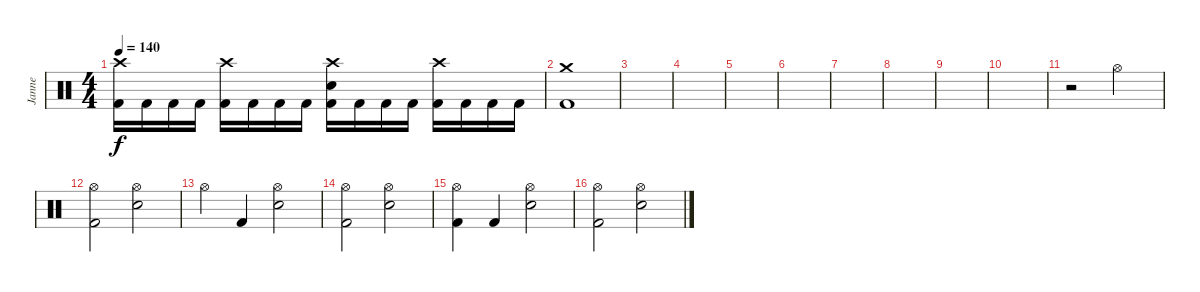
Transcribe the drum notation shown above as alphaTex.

\track ("Janne" "Janne") {instrument percussion}
\staff {score}
\articulation defaults
\ts (4 4)
\tempo 140
\clef neutral
\ks c
("Crash high (hit)" "Kick (hit) 2").16{dy f} "Kick (hit) 2".16 "Kick (hit) 2".16 "Kick (hit) 2".16 ("Crash high (hit)" "Kick (hit) 2").16 "Kick (hit) 2".16 "Kick (hit) 2".16 "Kick (hit) 2".16 ("Crash high (hit)" "Electric Snare (hit)" "Kick (hit) 2").16 "Kick (hit) 2".16 "Kick (hit) 2".16 "Kick (hit) 2".16 ("Crash high (hit)" "Kick (hit) 2").16 "Kick (hit) 2".16 "Kick (hit) 2".16 "Kick (hit) 2".16 |
("Crash medium (hit)" "Kick (hit) 2").1 |
|
|
|
|
|
|
|
|
r.2 "Hi-Hat (open)".2 |
("Hi-Hat (open)" "Kick (hit) 2").2 ("Hi-Hat (open)" "Electric Snare (hit)").2 |
"Hi-Hat (open)".4 "Kick (hit) 2".4 ("Hi-Hat (open)" "Electric Snare (hit)").2 |
("Hi-Hat (open)" "Kick (hit) 2").2 ("Hi-Hat (open)" "Electric Snare (hit)").2 |
("Hi-Hat (open)" "Kick (hit) 2").4 "Kick (hit) 2".4 ("Hi-Hat (open)" "Electric Snare (hit)").2 |
("Hi-Hat (open)" "Kick (hit) 2").2 ("Hi-Hat (open)" "Electric Snare (hit)").2
